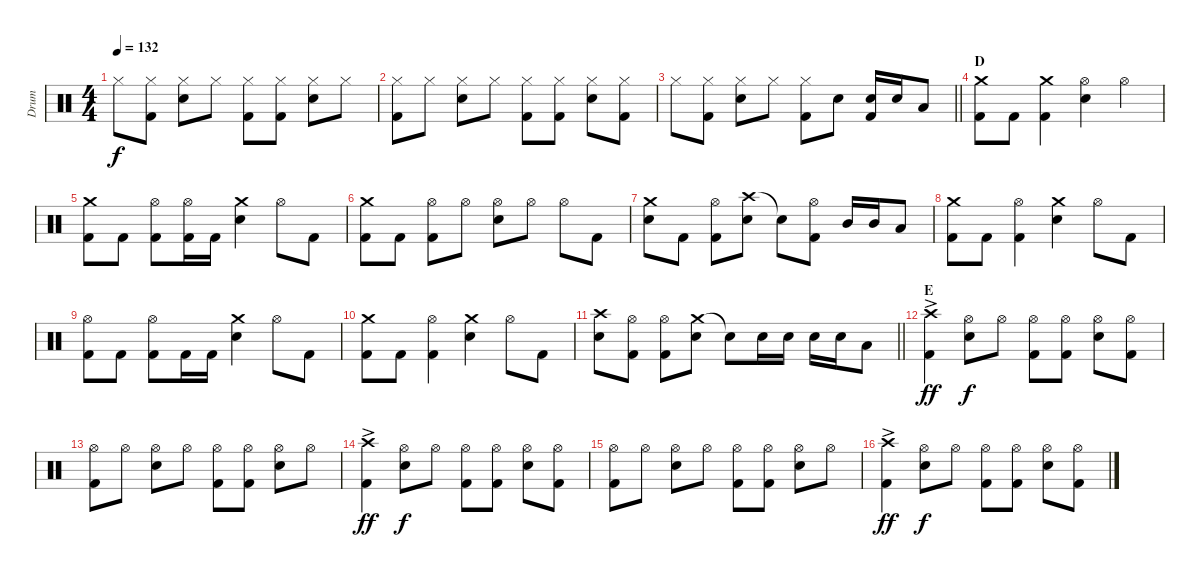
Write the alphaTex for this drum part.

\track ("Drum" "Drum") {instrument percussion}
\staff {score}
\articulation defaults
\ts (4 4)
\tempo 132
\clef neutral
\ks c "Hi-Hat (closed)".8{dy f}
("Hi-Hat (closed)" "Kick (hit) 2").8 ("Hi-Hat (closed)" "Electric Snare (hit)").8 "Hi-Hat (closed)".8 ("Hi-Hat (closed)" "Kick (hit) 2").8 ("Hi-Hat (closed)" "Kick (hit) 2").8 ("Hi-Hat (closed)" "Electric Snare (hit)").8 "Hi-Hat (closed)".8 |
("Hi-Hat (closed)" "Kick (hit) 2").8 "Hi-Hat (closed)".8 ("Hi-Hat (closed)" "Electric Snare (hit)").8 "Hi-Hat (closed)".8 ("Hi-Hat (closed)" "Kick (hit) 2").8 ("Hi-Hat (closed)" "Kick (hit) 2").8 ("Hi-Hat (closed)" "Electric Snare (hit)").8 ("Hi-Hat (closed)" "Kick (hit) 2").8 |
\barLineRight lightlight "Hi-Hat (closed)".8
("Hi-Hat (closed)" "Kick (hit) 2").8 ("Hi-Hat (closed)" "Electric Snare (hit)").8 "Hi-Hat (closed)".8 ("Hi-Hat (closed)" "Kick (hit) 2").8 "Electric Snare (hit)".8 ("Electric Snare (hit)" "Kick (hit) 2").16 "Electric Snare (hit)".16 "Low Tom (hit)".8 |
\section ("" "D")
("Crash medium (hit)" "Kick (hit) 2").8 "Kick (hit) 2".8 ("Crash medium (hit)" "Kick (hit) 2").4 ("Hi-Hat (open)" "Electric Snare (hit)").4 "Hi-Hat (open)".4 |
("Crash medium (hit)" "Kick (hit) 2").8 "Kick (hit) 2".8 ("Hi-Hat (open)" "Kick (hit) 2").8 ("Hi-Hat (open)" "Kick (hit) 2").16 "Kick (hit) 2".16 ("Crash medium (hit)" "Electric Snare (hit)").4 "Hi-Hat (open)".8 "Kick (hit) 2".8 |
("Crash medium (hit)" "Kick (hit) 2").8 "Kick (hit) 2".8 ("Hi-Hat (open)" "Kick (hit) 2").8 "Hi-Hat (open)".8 ("Hi-Hat (open)" "Electric Snare (hit)").8 "Hi-Hat (open)".8 "Hi-Hat (open)".8 "Kick (hit) 2".8 |
("Crash medium (hit)" "Electric Snare (hit)").8 "Kick (hit) 2".8 ("Hi-Hat (open)" "Kick (hit) 2").8 ("Crash high (hit)" "Electric Snare (hit)").8 "Snare (hit)"{t}.8 ("Hi-Hat (open)" "Kick (hit) 2").8 "Mid Tom (hit)".16 "Mid Tom (hit)".16 "Low Tom (hit)".8 |
("Crash medium (hit)" "Kick (hit) 2").8 "Kick (hit) 2".8 ("Hi-Hat (open)" "Kick (hit) 2").4 ("Crash medium (hit)" "Electric Snare (hit)").4 "Hi-Hat (open)".8 "Kick (hit) 2".8 |
("Hi-Hat (open)" "Kick (hit) 2").8 "Kick (hit) 2".8 ("Hi-Hat (open)" "Kick (hit) 2").8 "Kick (hit) 2".16 "Kick (hit) 2".16 ("Crash medium (hit)" "Electric Snare (hit)").4 "Hi-Hat (open)".8 "Kick (hit) 2".8 |
("Crash medium (hit)" "Kick (hit) 2").8 "Kick (hit) 2".8 ("Hi-Hat (open)" "Kick (hit) 2").4 ("Crash medium (hit)" "Electric Snare (hit)").4 "Hi-Hat (open)".8 "Kick (hit) 2".8 |
\barLineRight lightlight
("Crash high (hit)" "Electric Snare (hit)").8 ("Hi-Hat (open)" "Kick (hit) 2").8 ("Hi-Hat (open)" "Kick (hit) 2").8 ("Crash medium (hit)" "Electric Snare (hit)").8 "Snare (hit)"{t}.8 "Electric Snare (hit)".16 "Electric Snare (hit)".16 "Electric Snare (hit)".16 "Electric Snare (hit)".16 "Low Tom (hit)".8 |
\section ("" "E")
("Crash high (hit)"{ac} "Kick (hit) 2").4{dy ff} ("Hi-Hat (open)" "Electric Snare (hit)").8{dy f} "Hi-Hat (open)".8 ("Hi-Hat (open)" "Kick (hit) 2").8 ("Hi-Hat (open)" "Kick (hit) 2").8 ("Hi-Hat (open)" "Electric Snare (hit)").8 ("Hi-Hat (open)" "Kick (hit) 2").8 |
("Hi-Hat (open)" "Kick (hit) 2").8 "Hi-Hat (open)".8 ("Hi-Hat (open)" "Electric Snare (hit)").8 "Hi-Hat (open)".8 ("Hi-Hat (open)" "Kick (hit) 2").8 ("Hi-Hat (open)" "Kick (hit) 2").8 ("Hi-Hat (open)" "Electric Snare (hit)").8 "Hi-Hat (open)".8 |
("Crash high (hit)"{ac} "Kick (hit) 2").4{dy ff} ("Hi-Hat (open)" "Electric Snare (hit)").8{dy f} "Hi-Hat (open)".8 ("Hi-Hat (open)" "Kick (hit) 2").8 ("Hi-Hat (open)" "Kick (hit) 2").8 ("Hi-Hat (open)" "Electric Snare (hit)").8 ("Hi-Hat (open)" "Kick (hit) 2").8 |
("Hi-Hat (open)" "Kick (hit) 2").8 "Hi-Hat (open)".8 ("Hi-Hat (open)" "Electric Snare (hit)").8 "Hi-Hat (open)".8 ("Hi-Hat (open)" "Kick (hit) 2").8 ("Hi-Hat (open)" "Kick (hit) 2").8 ("Hi-Hat (open)" "Electric Snare (hit)").8 "Hi-Hat (open)".8 |
("Crash high (hit)"{ac} "Kick (hit) 2").4{dy ff} ("Hi-Hat (open)" "Electric Snare (hit)").8{dy f} "Hi-Hat (open)".8 ("Hi-Hat (open)" "Kick (hit) 2").8 ("Hi-Hat (open)" "Kick (hit) 2").8 ("Hi-Hat (open)" "Electric Snare (hit)").8 ("Hi-Hat (open)" "Kick (hit) 2").8
